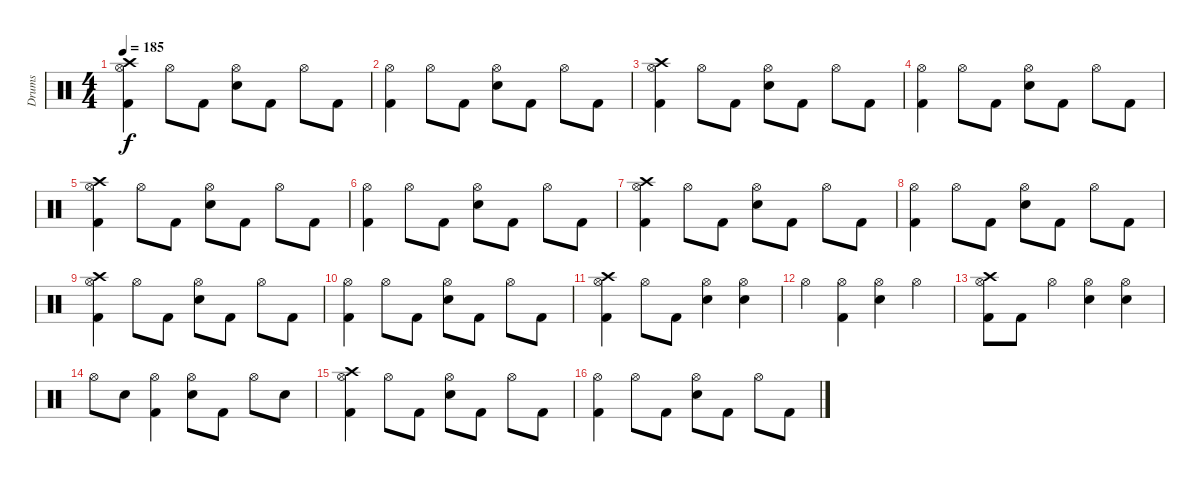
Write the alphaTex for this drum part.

\track ("Drums" "Drums") {instrument percussion}
\staff {score}
\articulation defaults
\ts (4 4)
\tempo 185
\clef neutral
\ks c
("Hi-Hat (open)" "Kick (hit) 2" "Crash high (hit)").4{dy f} "Hi-Hat (open)".8 "Kick (hit) 2".8 ("Hi-Hat (open)" "Electric Snare (hit)").8 "Kick (hit) 2".8 "Hi-Hat (open)".8 "Kick (hit) 2".8 |
("Hi-Hat (open)" "Kick (hit) 2").4 "Hi-Hat (open)".8 "Kick (hit) 2".8 ("Hi-Hat (open)" "Electric Snare (hit)").8 "Kick (hit) 2".8 "Hi-Hat (open)".8 "Kick (hit) 2".8 |
("Hi-Hat (open)" "Kick (hit) 2" "Crash high (hit)").4 "Hi-Hat (open)".8 "Kick (hit) 2".8 ("Hi-Hat (open)" "Electric Snare (hit)").8 "Kick (hit) 2".8 "Hi-Hat (open)".8 "Kick (hit) 2".8 |
("Hi-Hat (open)" "Kick (hit) 2").4 "Hi-Hat (open)".8 "Kick (hit) 2".8 ("Hi-Hat (open)" "Electric Snare (hit)").8 "Kick (hit) 2".8 "Hi-Hat (open)".8 "Kick (hit) 2".8 |
("Hi-Hat (open)" "Kick (hit) 2" "Crash high (hit)").4 "Hi-Hat (open)".8 "Kick (hit) 2".8 ("Hi-Hat (open)" "Electric Snare (hit)").8 "Kick (hit) 2".8 "Hi-Hat (open)".8 "Kick (hit) 2".8 |
("Hi-Hat (open)" "Kick (hit) 2").4 "Hi-Hat (open)".8 "Kick (hit) 2".8 ("Hi-Hat (open)" "Electric Snare (hit)").8 "Kick (hit) 2".8 "Hi-Hat (open)".8 "Kick (hit) 2".8 |
("Hi-Hat (open)" "Kick (hit) 2" "Crash high (hit)").4 "Hi-Hat (open)".8 "Kick (hit) 2".8 ("Hi-Hat (open)" "Electric Snare (hit)").8 "Kick (hit) 2".8 "Hi-Hat (open)".8 "Kick (hit) 2".8 |
("Hi-Hat (open)" "Kick (hit) 2").4 "Hi-Hat (open)".8 "Kick (hit) 2".8 ("Hi-Hat (open)" "Electric Snare (hit)").8 "Kick (hit) 2".8 "Hi-Hat (open)".8 "Kick (hit) 2".8 |
("Hi-Hat (open)" "Kick (hit) 2" "Crash high (hit)").4 "Hi-Hat (open)".8 "Kick (hit) 2".8 ("Hi-Hat (open)" "Electric Snare (hit)").8 "Kick (hit) 2".8 "Hi-Hat (open)".8 "Kick (hit) 2".8 |
("Hi-Hat (open)" "Kick (hit) 2").4 "Hi-Hat (open)".8 "Kick (hit) 2".8 ("Hi-Hat (open)" "Electric Snare (hit)").8 "Kick (hit) 2".8 "Hi-Hat (open)".8 "Kick (hit) 2".8 |
("Hi-Hat (open)" "Kick (hit) 2" "Crash high (hit)").4 "Hi-Hat (open)".8 "Kick (hit) 2".8 ("Hi-Hat (open)" "Electric Snare (hit)").4 ("Hi-Hat (open)" "Electric Snare (hit)").4 |
"Hi-Hat (open)".4 ("Hi-Hat (open)" "Kick (hit) 2").4 ("Hi-Hat (open)" "Electric Snare (hit)").4 "Hi-Hat (open)".4 |
("Hi-Hat (open)" "Kick (hit) 2" "Crash high (hit)").8 "Kick (hit) 2".8 "Hi-Hat (open)".4 ("Hi-Hat (open)" "Electric Snare (hit)").4 ("Hi-Hat (open)" "Electric Snare (hit)").4 |
"Hi-Hat (open)".8 "Electric Snare (hit)".8 ("Hi-Hat (open)" "Kick (hit) 2").4 ("Hi-Hat (open)" "Electric Snare (hit)").8 "Kick (hit) 2".8 "Hi-Hat (open)".8 "Electric Snare (hit)".8 |
("Hi-Hat (open)" "Kick (hit) 2" "Crash high (hit)").4 "Hi-Hat (open)".8 "Kick (hit) 2".8 ("Hi-Hat (open)" "Electric Snare (hit)").8 "Kick (hit) 2".8 "Hi-Hat (open)".8 "Kick (hit) 2".8 |
("Hi-Hat (open)" "Kick (hit) 2").4 "Hi-Hat (open)".8 "Kick (hit) 2".8 ("Hi-Hat (open)" "Electric Snare (hit)").8 "Kick (hit) 2".8 "Hi-Hat (open)".8 "Kick (hit) 2".8
